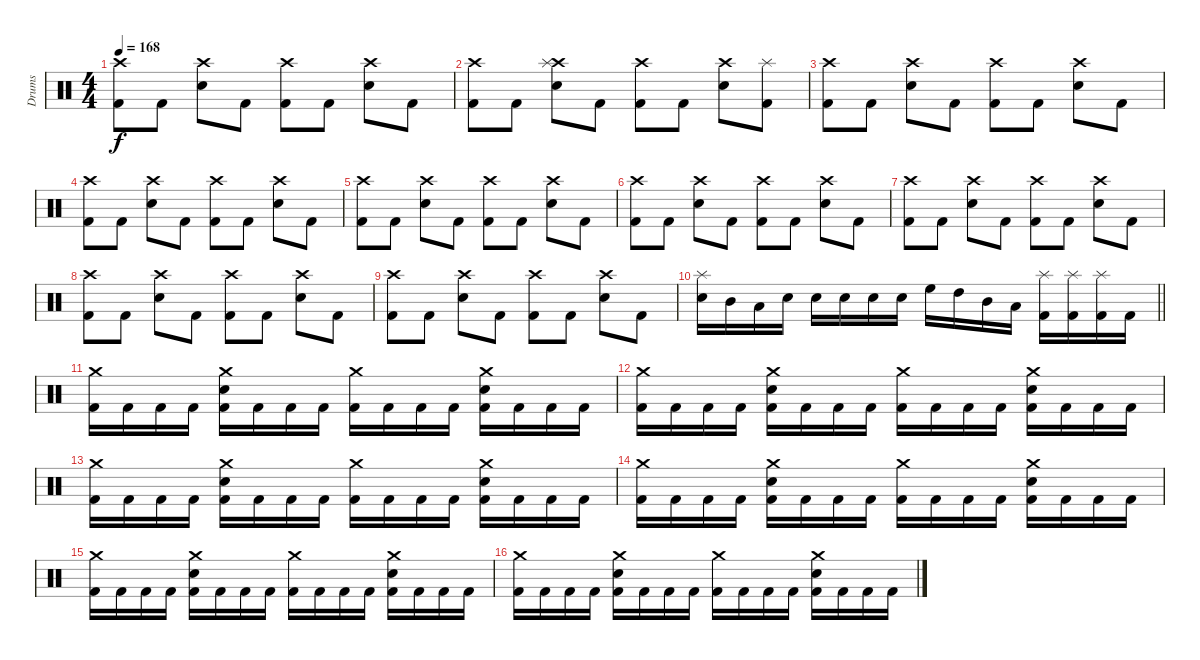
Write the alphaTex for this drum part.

\track ("Drums" "Drums") {instrument percussion}
\staff {score}
\articulation defaults
\ts (4 4)
\tempo 168
\clef neutral
\ks c
("Crash high (hit)" "Kick (hit) 2").8{dy f} "Kick (hit) 2".8 ("Crash high (hit)" "Snare (hit) 2").8 "Kick (hit) 2".8 ("Crash high (hit)" "Kick (hit) 2").8 "Kick (hit) 2".8 ("Crash high (hit)" "Snare (hit) 2").8 "Kick (hit) 2".8 |
("Crash high (hit)" "Kick (hit) 2").8 "Kick (hit) 2".8 ("Crash high (hit)" "Splash (hit)" "Snare (hit) 2").8 "Kick (hit) 2".8 ("Crash high (hit)" "Kick (hit) 2").8 "Kick (hit) 2".8 ("Crash high (hit)" "Snare (hit) 2").8 ("Splash (hit)" "Kick (hit) 2").8 |
("Crash high (hit)" "Kick (hit) 2").8 "Kick (hit) 2".8 ("Crash high (hit)" "Snare (hit) 2").8 "Kick (hit) 2".8 ("Crash high (hit)" "Kick (hit) 2").8 "Kick (hit) 2".8 ("Crash high (hit)" "Snare (hit) 2").8 "Kick (hit) 2".8 |
("Crash high (hit)" "Kick (hit) 2").8 "Kick (hit) 2".8 ("Crash high (hit)" "Snare (hit) 2").8 "Kick (hit) 2".8 ("Crash high (hit)" "Kick (hit) 2").8 "Kick (hit) 2".8 ("Crash high (hit)" "Snare (hit) 2").8 "Kick (hit) 2".8 |
("Crash high (hit)" "Kick (hit) 2").8 "Kick (hit) 2".8 ("Crash high (hit)" "Snare (hit) 2").8 "Kick (hit) 2".8 ("Crash high (hit)" "Kick (hit) 2").8 "Kick (hit) 2".8 ("Crash high (hit)" "Snare (hit) 2").8 "Kick (hit) 2".8 |
("Crash high (hit)" "Kick (hit) 2").8 "Kick (hit) 2".8 ("Crash high (hit)" "Snare (hit) 2").8 "Kick (hit) 2".8 ("Crash high (hit)" "Kick (hit) 2").8 "Kick (hit) 2".8 ("Crash high (hit)" "Snare (hit) 2").8 "Kick (hit) 2".8 |
("Crash high (hit)" "Kick (hit) 2").8 "Kick (hit) 2".8 ("Crash high (hit)" "Snare (hit) 2").8 "Kick (hit) 2".8 ("Crash high (hit)" "Kick (hit) 2").8 "Kick (hit) 2".8 ("Crash high (hit)" "Snare (hit) 2").8 "Kick (hit) 2".8 |
("Crash high (hit)" "Kick (hit) 2").8 "Kick (hit) 2".8 ("Crash high (hit)" "Snare (hit) 2").8 "Kick (hit) 2".8 ("Crash high (hit)" "Kick (hit) 2").8 "Kick (hit) 2".8 ("Crash high (hit)" "Snare (hit) 2").8 "Kick (hit) 2".8 |
("Crash high (hit)" "Kick (hit) 2").8 "Kick (hit) 2".8 ("Crash high (hit)" "Snare (hit) 2").8 "Kick (hit) 2".8 ("Crash high (hit)" "Kick (hit) 2").8 "Kick (hit) 2".8 ("Crash high (hit)" "Snare (hit) 2").8 "Kick (hit) 2".8 |
\barLineRight lightlight
("Splash (hit)" "Snare (hit) 2").16 "Mid Tom (hit)".16 "Low Tom (hit)".16 "Snare (hit) 2".16 "Snare (hit) 2".16 "Snare (hit) 2".16 "Snare (hit) 2".16 "Snare (hit) 2".16 "High Floor Tom (hit)".16 "High Tom (hit)".16 "Mid Tom (hit)".16 "Low Tom (hit)".16 ("Splash (hit)" "Kick (hit) 2").16 ("Splash (hit)" "Kick (hit) 2").16 ("Splash (hit)" "Kick (hit) 2").16 "Kick (hit) 2".16 |
("Crash medium (hit)" "Kick (hit) 2").16 "Kick (hit) 2".16 "Kick (hit) 2".16 "Kick (hit) 2".16 ("Crash medium (hit)" "Snare (hit) 2" "Kick (hit) 2").16 "Kick (hit) 2".16 "Kick (hit) 2".16 "Kick (hit) 2".16 ("Crash medium (hit)" "Kick (hit) 2").16 "Kick (hit) 2".16 "Kick (hit) 2".16 "Kick (hit) 2".16 ("Crash medium (hit)" "Snare (hit) 2" "Kick (hit) 2").16 "Kick (hit) 2".16 "Kick (hit) 2".16 "Kick (hit) 2".16 |
("Crash medium (hit)" "Kick (hit) 2").16 "Kick (hit) 2".16 "Kick (hit) 2".16 "Kick (hit) 2".16 ("Crash medium (hit)" "Snare (hit) 2" "Kick (hit) 2").16 "Kick (hit) 2".16 "Kick (hit) 2".16 "Kick (hit) 2".16 ("Crash medium (hit)" "Kick (hit) 2").16 "Kick (hit) 2".16 "Kick (hit) 2".16 "Kick (hit) 2".16 ("Crash medium (hit)" "Snare (hit) 2" "Kick (hit) 2").16 "Kick (hit) 2".16 "Kick (hit) 2".16 "Kick (hit) 2".16 |
("Crash medium (hit)" "Kick (hit) 2").16 "Kick (hit) 2".16 "Kick (hit) 2".16 "Kick (hit) 2".16 ("Crash medium (hit)" "Snare (hit) 2" "Kick (hit) 2").16 "Kick (hit) 2".16 "Kick (hit) 2".16 "Kick (hit) 2".16 ("Crash medium (hit)" "Kick (hit) 2").16 "Kick (hit) 2".16 "Kick (hit) 2".16 "Kick (hit) 2".16 ("Crash medium (hit)" "Snare (hit) 2" "Kick (hit) 2").16 "Kick (hit) 2".16 "Kick (hit) 2".16 "Kick (hit) 2".16 |
("Crash medium (hit)" "Kick (hit) 2").16 "Kick (hit) 2".16 "Kick (hit) 2".16 "Kick (hit) 2".16 ("Crash medium (hit)" "Snare (hit) 2" "Kick (hit) 2").16 "Kick (hit) 2".16 "Kick (hit) 2".16 "Kick (hit) 2".16 ("Crash medium (hit)" "Kick (hit) 2").16 "Kick (hit) 2".16 "Kick (hit) 2".16 "Kick (hit) 2".16 ("Crash medium (hit)" "Snare (hit) 2" "Kick (hit) 2").16 "Kick (hit) 2".16 "Kick (hit) 2".16 "Kick (hit) 2".16 |
("Crash medium (hit)" "Kick (hit) 2").16 "Kick (hit) 2".16 "Kick (hit) 2".16 "Kick (hit) 2".16 ("Crash medium (hit)" "Snare (hit) 2" "Kick (hit) 2").16 "Kick (hit) 2".16 "Kick (hit) 2".16 "Kick (hit) 2".16 ("Crash medium (hit)" "Kick (hit) 2").16 "Kick (hit) 2".16 "Kick (hit) 2".16 "Kick (hit) 2".16 ("Crash medium (hit)" "Snare (hit) 2" "Kick (hit) 2").16 "Kick (hit) 2".16 "Kick (hit) 2".16 "Kick (hit) 2".16 |
("Crash medium (hit)" "Kick (hit) 2").16 "Kick (hit) 2".16 "Kick (hit) 2".16 "Kick (hit) 2".16 ("Crash medium (hit)" "Snare (hit) 2" "Kick (hit) 2").16 "Kick (hit) 2".16 "Kick (hit) 2".16 "Kick (hit) 2".16 ("Crash medium (hit)" "Kick (hit) 2").16 "Kick (hit) 2".16 "Kick (hit) 2".16 "Kick (hit) 2".16 ("Crash medium (hit)" "Snare (hit) 2" "Kick (hit) 2").16 "Kick (hit) 2".16 "Kick (hit) 2".16 "Kick (hit) 2".16
